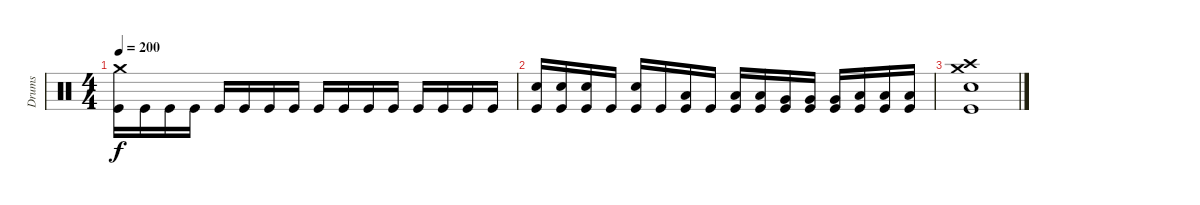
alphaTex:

\track ("Drums" "Drums") {instrument percussion}
\staff {score}
\articulation defaults
\ts (4 4)
\tempo 200
\clef neutral
\ks c
("Crash medium (hit)" "Kick (hit)").16{dy f} "Kick (hit)".16 "Kick (hit)".16 "Kick (hit)".16 "Kick (hit)".16 "Kick (hit)".16 "Kick (hit)".16 "Kick (hit)".16 "Kick (hit)".16 "Kick (hit)".16 "Kick (hit)".16 "Kick (hit)".16 "Kick (hit)".16 "Kick (hit)".16 "Kick (hit)".16 "Kick (hit)".16 |
("Electric Snare (hit)" "Kick (hit)").16 ("Electric Snare (hit)" "Kick (hit)").16 ("Electric Snare (hit)" "Kick (hit)").16 "Kick (hit)".16 ("Electric Snare (hit)" "Kick (hit)").16 "Kick (hit)".16 ("Low Tom (hit)" "Kick (hit)").16 "Kick (hit)".16 ("Low Tom (hit)" "Kick (hit)").16 ("Low Tom (hit)" "Kick (hit)").16 ("Very Low Tom (hit)" "Kick (hit)").16 ("Very Low Tom (hit)" "Kick (hit)").16 ("Very Low Tom (hit)" "Kick (hit)").16 ("Low Floor Tom (hit)" "Kick (hit)").16 ("Low Floor Tom (hit)" "Kick (hit)").16 ("Low Floor Tom (hit)" "Kick (hit)").16 |
("Crash medium (hit)" "Crash high (hit)" "Electric Snare (hit)" "Kick (hit)").1
